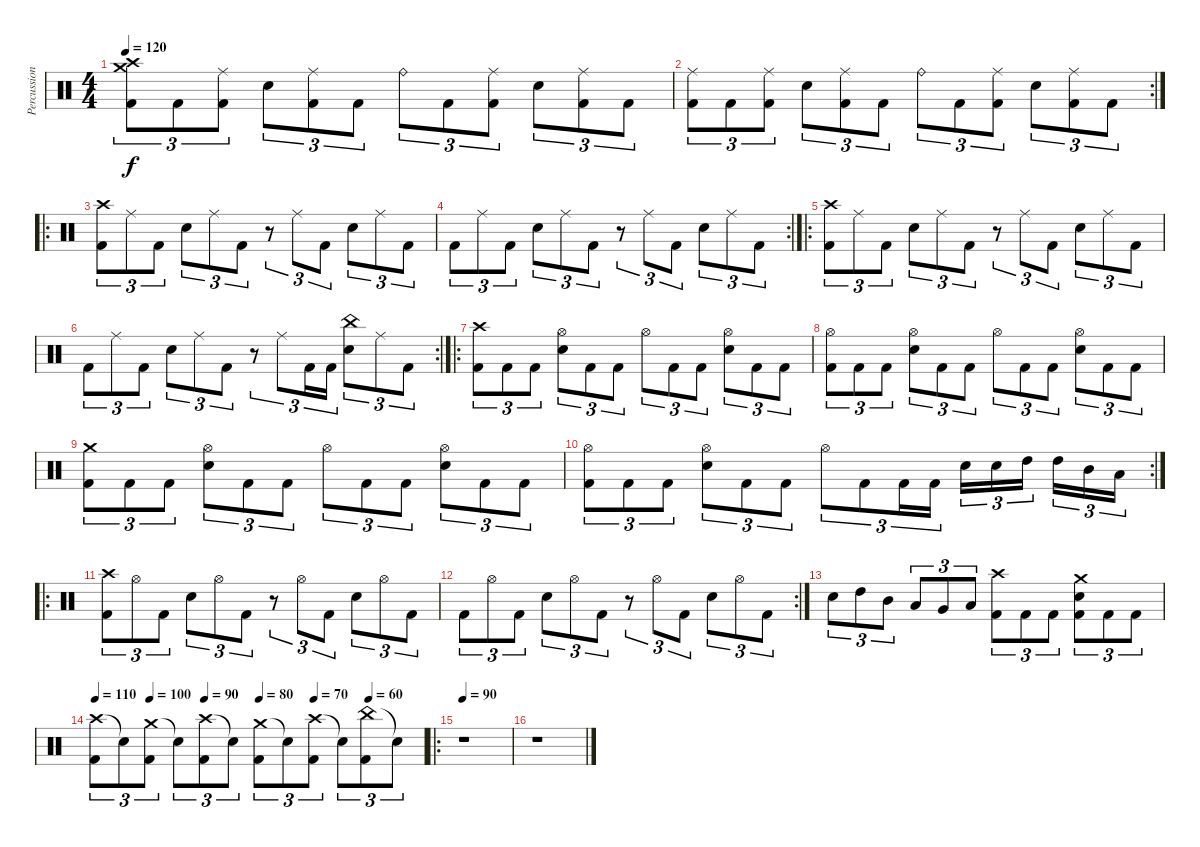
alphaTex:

\track ("Percussions" "Percussion") {instrument percussion}
\staff {score}
\articulation defaults
\ts (4 4)
\tempo 120
\clef neutral
\ks c
("Crash medium (hit)" "Crash high (hit)" "Kick (hit) 2").8{tu (3 2) dy f} "Kick (hit) 2".8{tu (3 2)} ("Ride (middle)" "Kick (hit) 2").8{tu (3 2)} "Electric Snare (hit)".8{tu (3 2)} ("Ride (middle)" "Kick (hit) 2").8{tu (3 2)} "Kick (hit) 2".8{tu (3 2)} "Ride (bell)".8{tu (3 2)} "Kick (hit) 2".8{tu (3 2)} ("Ride (middle)" "Kick (hit) 2").8{tu (3 2)} "Electric Snare (hit)".8{tu (3 2)} ("Ride (middle)" "Kick (hit) 2").8{tu (3 2)} "Kick (hit) 2".8{tu (3 2)} |
\rc 2
("Ride (middle)" "Kick (hit) 2").8{tu (3 2)} "Kick (hit) 2".8{tu (3 2)} ("Ride (middle)" "Kick (hit) 2").8{tu (3 2)} "Electric Snare (hit)".8{tu (3 2)} ("Ride (middle)" "Kick (hit) 2").8{tu (3 2)} "Kick (hit) 2".8{tu (3 2)} "Ride (bell)".8{tu (3 2)} "Kick (hit) 2".8{tu (3 2)} ("Ride (middle)" "Kick (hit) 2").8{tu (3 2)} "Electric Snare (hit)".8{tu (3 2)} ("Ride (middle)" "Kick (hit) 2").8{tu (3 2)} "Kick (hit) 2".8{tu (3 2)} |
\ro
("Crash high (hit)" "Kick (hit) 2").8{tu (3 2)} "Ride (middle)".8{tu (3 2)} "Kick (hit) 2".8{tu (3 2)} "Electric Snare (hit)".8{tu (3 2)} "Ride (middle)".8{tu (3 2)} "Kick (hit) 2".8{tu (3 2)} r.8{tu (3 2)} "Ride (middle)".8{tu (3 2)} "Kick (hit) 2".8{tu (3 2)} "Electric Snare (hit)".8{tu (3 2)} "Ride (middle)".8{tu (3 2)} "Kick (hit) 2".8{tu (3 2)} |
\rc 2 "Kick (hit) 2".8{tu (3 2)} "Ride (middle)".8{tu (3 2)} "Kick (hit) 2".8{tu (3 2)} "Electric Snare (hit)".8{tu (3 2)} "Ride (middle)".8{tu (3 2)} "Kick (hit) 2".8{tu (3 2)}
r.8{tu (3 2)} "Ride (middle)".8{tu (3 2)} "Kick (hit) 2".8{tu (3 2)} "Electric Snare (hit)".8{tu (3 2)} "Ride (middle)".8{tu (3 2)} "Kick (hit) 2".8{tu (3 2)} |
\ro
("Crash high (hit)" "Kick (hit) 2").8{tu (3 2)} "Ride (middle)".8{tu (3 2)} "Kick (hit) 2".8{tu (3 2)} "Electric Snare (hit)".8{tu (3 2)} "Ride (middle)".8{tu (3 2)} "Kick (hit) 2".8{tu (3 2)} r.8{tu (3 2)} "Ride (middle)".8{tu (3 2)} "Kick (hit) 2".8{tu (3 2)} "Electric Snare (hit)".8{tu (3 2)} "Ride (middle)".8{tu (3 2)} "Kick (hit) 2".8{tu (3 2)} |
\rc 2 "Kick (hit) 2".8{tu (3 2)} "Ride (middle)".8{tu (3 2)} "Kick (hit) 2".8{tu (3 2)} "Electric Snare (hit)".8{tu (3 2)} "Ride (middle)".8{tu (3 2)} "Kick (hit) 2".8{tu (3 2)}
r.8{tu (3 2)} "Ride (middle)".8{tu (3 2)} "Kick (hit) 2".16{tu (3 2)} "Kick (hit) 2".16{tu (3 2)} ("China (hit)" "Electric Snare (hit)").8{tu (3 2)} "Ride (middle)".8{tu (3 2)} "Kick (hit) 2".8{tu (3 2)} |
\ro
("Crash high (hit)" "Kick (hit) 2").8{tu (3 2)} "Kick (hit) 2".8{tu (3 2)} "Kick (hit) 2".8{tu (3 2)} ("Hi-Hat (open)" "Electric Snare (hit)").8{tu (3 2)} "Kick (hit) 2".8{tu (3 2)} "Kick (hit) 2".8{tu (3 2)} "Hi-Hat (open)".8{tu (3 2)} "Kick (hit) 2".8{tu (3 2)} "Kick (hit) 2".8{tu (3 2)} ("Hi-Hat (open)" "Electric Snare (hit)").8{tu (3 2)} "Kick (hit) 2".8{tu (3 2)} "Kick (hit) 2".8{tu (3 2)} |
("Hi-Hat (open)" "Kick (hit) 2").8{tu (3 2)} "Kick (hit) 2".8{tu (3 2)} "Kick (hit) 2".8{tu (3 2)} ("Hi-Hat (open)" "Electric Snare (hit)").8{tu (3 2)} "Kick (hit) 2".8{tu (3 2)} "Kick (hit) 2".8{tu (3 2)} "Hi-Hat (open)".8{tu (3 2)} "Kick (hit) 2".8{tu (3 2)} "Kick (hit) 2".8{tu (3 2)} ("Hi-Hat (open)" "Electric Snare (hit)").8{tu (3 2)} "Kick (hit) 2".8{tu (3 2)} "Kick (hit) 2".8{tu (3 2)} |
("Crash medium (hit)" "Kick (hit) 2").8{tu (3 2)} "Kick (hit) 2".8{tu (3 2)} "Kick (hit) 2".8{tu (3 2)} ("Hi-Hat (open)" "Electric Snare (hit)").8{tu (3 2)} "Kick (hit) 2".8{tu (3 2)} "Kick (hit) 2".8{tu (3 2)} "Hi-Hat (open)".8{tu (3 2)} "Kick (hit) 2".8{tu (3 2)} "Kick (hit) 2".8{tu (3 2)} ("Hi-Hat (open)" "Electric Snare (hit)").8{tu (3 2)} "Kick (hit) 2".8{tu (3 2)} "Kick (hit) 2".8{tu (3 2)} |
\rc 2
("Hi-Hat (open)" "Kick (hit) 2").8{tu (3 2)} "Kick (hit) 2".8{tu (3 2)} "Kick (hit) 2".8{tu (3 2)} ("Hi-Hat (open)" "Electric Snare (hit)").8{tu (3 2)} "Kick (hit) 2".8{tu (3 2)} "Kick (hit) 2".8{tu (3 2)} "Hi-Hat (open)".8{tu (3 2)} "Kick (hit) 2".8{tu (3 2)} "Kick (hit) 2".16{tu (3 2)} "Kick (hit) 2".16{tu (3 2)} "Electric Snare (hit)".16{tu (3 2)} "Electric Snare (hit)".16{tu (3 2)} "High Tom (hit)".16{tu (3 2)} "High Tom (hit)".16{tu (3 2)} "Mid Tom (hit)".16{tu (3 2)} "Low Tom (hit)".16{tu (3 2)} |
\ro
("Crash high (hit)" "Kick (hit) 2").8{tu (3 2)} "Hi-Hat (open)".8{tu (3 2)} "Kick (hit) 2".8{tu (3 2)} "Electric Snare (hit)".8{tu (3 2)} "Hi-Hat (open)".8{tu (3 2)} "Kick (hit) 2".8{tu (3 2)} r.8{tu (3 2)} "Hi-Hat (open)".8{tu (3 2)} "Kick (hit) 2".8{tu (3 2)} "Electric Snare (hit)".8{tu (3 2)} "Hi-Hat (open)".8{tu (3 2)} "Kick (hit) 2".8{tu (3 2)} |
\rc 2 "Kick (hit) 2".8{tu (3 2)} "Hi-Hat (open)".8{tu (3 2)} "Kick (hit) 2".8{tu (3 2)} "Electric Snare (hit)".8{tu (3 2)} "Hi-Hat (open)".8{tu (3 2)} "Kick (hit) 2".8{tu (3 2)}
r.8{tu (3 2)} "Hi-Hat (open)".8{tu (3 2)} "Kick (hit) 2".8{tu (3 2)} "Electric Snare (hit)".8{tu (3 2)} "Hi-Hat (open)".8{tu (3 2)} "Kick (hit) 2".8{tu (3 2)} |
"Electric Snare (hit)".8{tu (3 2)} "High Tom (hit)".8{tu (3 2)} "Mid Tom (hit)".8{tu (3 2)} "Low Tom (hit)".8{tu (3 2)} "Very Low Tom (hit)".8{tu (3 2)} "Low Floor Tom (hit)".8{tu (3 2)} ("Crash high (hit)" "Kick (hit) 2").8{tu (3 2)} "Kick (hit) 2".8{tu (3 2)} "Kick (hit) 2".8{tu (3 2)} ("Crash medium (hit)" "Electric Snare (hit)" "Kick (hit) 2").8{tu (3 2)} "Kick (hit) 2".8{tu (3 2)} "Kick (hit) 2".8{tu (3 2)} |
\tempo 110
\tempo (100 0.16666666666666666)
\tempo (90 0.3333333333333333)
\tempo (80 0.5)
\tempo (70 0.6666666666666666)
\tempo (60 0.8333333333333334)
("Crash high (hit)" "Kick (hit) 2").8{tu (3 2)} "Snare (hit)"{t}.8{tu (3 2)} ("Crash medium (hit)" "Kick (hit) 2").8{tu (3 2)} "Snare (hit)"{t}.8{tu (3 2)} ("Crash high (hit)" "Kick (hit) 2").8{tu (3 2)} "Snare (hit)"{t}.8{tu (3 2)} ("Crash medium (hit)" "Kick (hit) 2").8{tu (3 2)} "Snare (hit)"{t}.8{tu (3 2)} ("Crash high (hit)" "Kick (hit) 2").8{tu (3 2)} "Snare (hit)"{t}.8{tu (3 2)} ("China (hit)" "Kick (hit) 2").8{tu (3 2)} "Snare (hit)"{t}.8{tu (3 2)} |
\ro
\tempo 90
r.1 |
r.1
